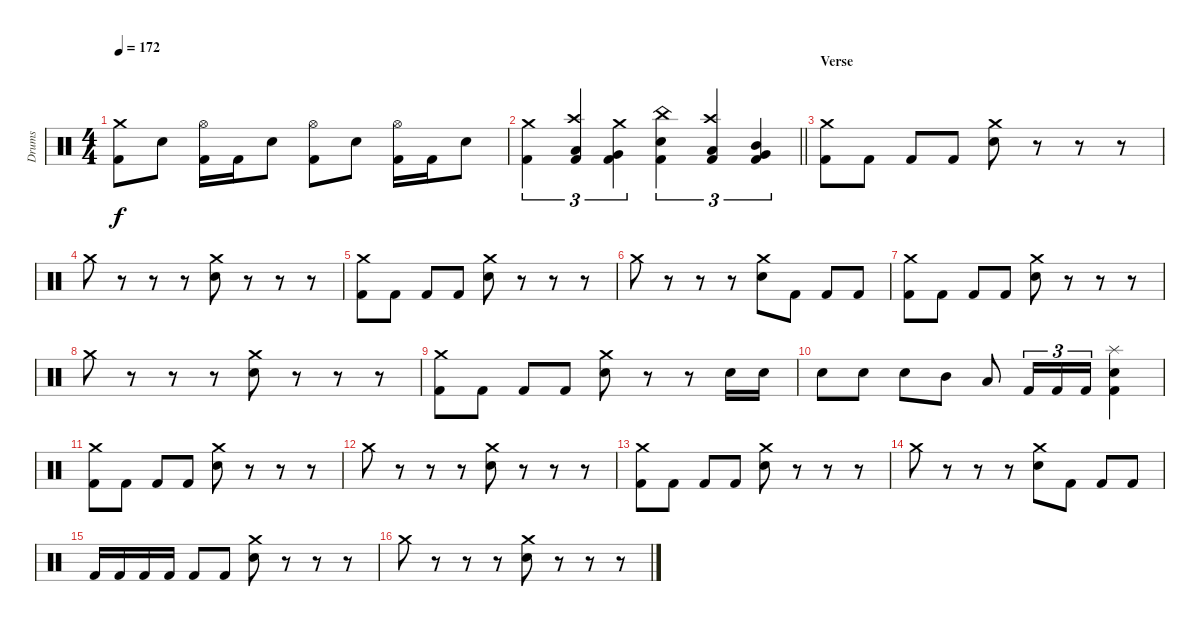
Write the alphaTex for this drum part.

\track ("Drums" "Drums") {instrument percussion}
\staff {score}
\articulation defaults
\ts (4 4)
\tempo 172
\clef neutral
\ks c
("Crash medium (hit)" "Kick (hit) 2").8{dy f} "Electric Snare (hit)".8 ("Hi-Hat (open)" "Kick (hit) 2").16 "Kick (hit) 2".16 "Electric Snare (hit)".8 ("Hi-Hat (open)" "Kick (hit) 2").8 "Electric Snare (hit)".8 ("Hi-Hat (open)" "Kick (hit) 2").16 "Kick (hit) 2".16 "Electric Snare (hit)".8 |
\barLineRight lightlight
("Crash medium (hit)" "Kick (hit) 2").4{tu (3 2)} ("Crash high (hit)" "Low Tom (hit)" "Kick (hit) 2").4{tu (3 2)} ("Crash medium (hit)" "Very Low Tom (hit)" "Kick (hit) 2").4{tu (3 2)} ("China (hit)" "Electric Snare (hit)" "Kick (hit) 2").4{tu (3 2)} ("Crash high (hit)" "Low Tom (hit)" "Kick (hit) 2").4{tu (3 2)} ("Mid Tom (hit)" "Very Low Tom (hit)" "Kick (hit) 2").4{tu (3 2)} |
\section ("" "Verse")
("Crash medium (hit)" "Kick (hit) 2").8 "Kick (hit) 2".8 "Kick (hit) 2".8 "Kick (hit) 2".8 ("Crash medium (hit)" "Electric Snare (hit)").8 r.8 r.8 r.8 |
"Crash medium (hit)".8 r.8 r.8 r.8 ("Crash medium (hit)" "Electric Snare (hit)").8 r.8 r.8 r.8 |
("Crash medium (hit)" "Kick (hit) 2").8 "Kick (hit) 2".8 "Kick (hit) 2".8 "Kick (hit) 2".8 ("Crash medium (hit)" "Electric Snare (hit)").8 r.8 r.8 r.8 |
"Crash medium (hit)".8 r.8 r.8 r.8 ("Crash medium (hit)" "Electric Snare (hit)").8 "Kick (hit) 2".8 "Kick (hit) 2".8 "Kick (hit) 2".8 |
("Crash medium (hit)" "Kick (hit) 2").8 "Kick (hit) 2".8 "Kick (hit) 2".8 "Kick (hit) 2".8 ("Crash medium (hit)" "Electric Snare (hit)").8 r.8 r.8 r.8 |
"Crash medium (hit)".8 r.8 r.8 r.8 ("Crash medium (hit)" "Electric Snare (hit)").8 r.8 r.8 r.8 |
("Crash medium (hit)" "Kick (hit) 2").8 "Kick (hit) 2".8 "Kick (hit) 2".8 "Kick (hit) 2".8 ("Crash medium (hit)" "Electric Snare (hit)").8 r.8 r.8 "Electric Snare (hit)".16 "Electric Snare (hit)".16 |
"Electric Snare (hit)".8 "Electric Snare (hit)".8 "Electric Snare (hit)".8 "Mid Tom (hit)".8 "Low Tom (hit)".8 "Kick (hit) 2".16{tu (3 2)} "Kick (hit) 2".16{tu (3 2)} "Kick (hit) 2".16{tu (3 2)} ("Splash (hit)" "Electric Snare (hit)" "Kick (hit) 2").4 |
("Crash medium (hit)" "Kick (hit) 2").8 "Kick (hit) 2".8 "Kick (hit) 2".8 "Kick (hit) 2".8 ("Crash medium (hit)" "Electric Snare (hit)").8 r.8 r.8 r.8 |
"Crash medium (hit)".8 r.8 r.8 r.8 ("Crash medium (hit)" "Electric Snare (hit)").8 r.8 r.8 r.8 |
("Crash medium (hit)" "Kick (hit) 2").8 "Kick (hit) 2".8 "Kick (hit) 2".8 "Kick (hit) 2".8 ("Crash medium (hit)" "Electric Snare (hit)").8 r.8 r.8 r.8 |
"Crash medium (hit)".8 r.8 r.8 r.8 ("Crash medium (hit)" "Electric Snare (hit)").8 "Kick (hit) 2".8 "Kick (hit) 2".8 "Kick (hit) 2".8 |
"Kick (hit) 2".16 "Kick (hit) 2".16 "Kick (hit) 2".16 "Kick (hit) 2".16 "Kick (hit) 2".8 "Kick (hit) 2".8 ("Crash medium (hit)" "Electric Snare (hit)").8 r.8 r.8 r.8 |
"Crash medium (hit)".8 r.8 r.8 r.8 ("Crash medium (hit)" "Electric Snare (hit)").8 r.8 r.8 r.8
